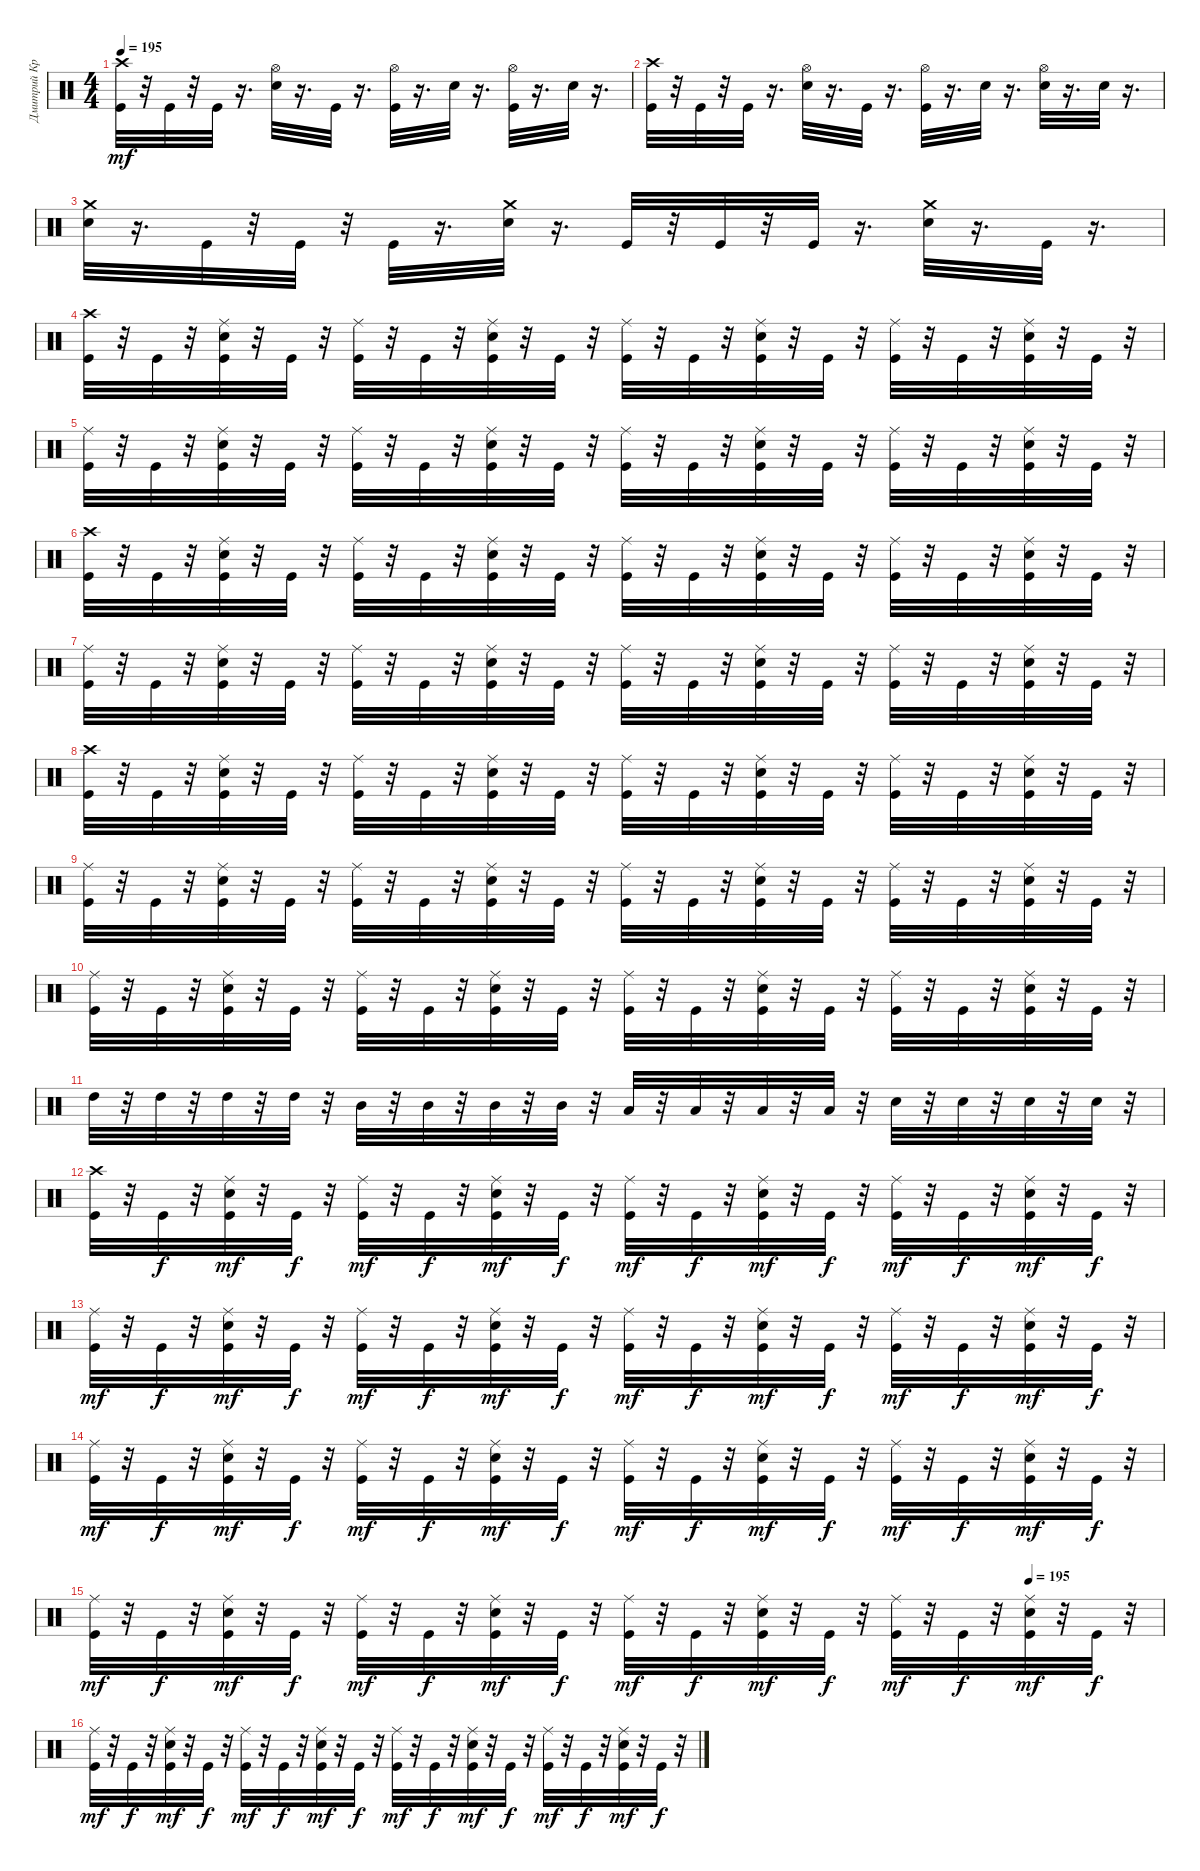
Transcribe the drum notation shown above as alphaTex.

\track ("Дмитрий Кривенков" "Дмитрий Кр") {instrument percussion}
\staff {score}
\articulation defaults
\ts (4 4)
\tempo 195
\clef neutral
\ks c
("Crash high (hit)" "Kick (hit)").32{dy mf} r.32 "Kick (hit)".32 r.32 "Kick (hit)".32 r.16{d} ("Electric Snare (hit)" "Hi-Hat (open)").32 r.16{d} "Kick (hit)".32 r.16{d} ("Kick (hit)" "Hi-Hat (open)").32 r.16{d} "Electric Snare (hit)".32 r.16{d} ("Kick (hit)" "Hi-Hat (open)").32 r.16{d} "Electric Snare (hit)".32 r.16{d} |
("Crash high (hit)" "Kick (hit)").32 r.32 "Kick (hit)".32 r.32 "Kick (hit)".32 r.16{d} ("Electric Snare (hit)" "Hi-Hat (open)").32 r.16{d} "Kick (hit)".32 r.16{d} ("Kick (hit)" "Hi-Hat (open)").32 r.16{d} "Electric Snare (hit)".32 r.16{d} ("Electric Snare (hit)" "Hi-Hat (open)").32 r.16{d} "Electric Snare (hit)".32 r.16{d} |
("Crash medium (hit)" "Electric Snare (hit)").32 r.16{d} "Kick (hit)".32 r.32 "Kick (hit)".32 r.32 "Kick (hit)".32 r.16{d} ("Crash medium (hit)" "Electric Snare (hit)").32 r.16{d} "Kick (hit)".32 r.32 "Kick (hit)".32 r.32 "Kick (hit)".32 r.16{d} ("Crash medium (hit)" "Electric Snare (hit)").32 r.16{d} "Kick (hit)".32 r.16{d} |
("Crash high (hit)" "Kick (hit)").32 r.32 "Kick (hit)".32 r.32 ("Electric Snare (hit)" "Kick (hit)" "Ride (middle)").32 r.32 "Kick (hit)".32 r.32 ("Ride (middle)" "Kick (hit)").32 r.32 "Kick (hit)".32 r.32 ("Ride (middle)" "Electric Snare (hit)" "Kick (hit)").32 r.32 "Kick (hit)".32 r.32 ("Ride (middle)" "Kick (hit)").32 r.32 "Kick (hit)".32 r.32 ("Ride (middle)" "Kick (hit)" "Electric Snare (hit)").32 r.32 "Kick (hit)".32 r.32 ("Ride (middle)" "Kick (hit)").32 r.32 "Kick (hit)".32 r.32 ("Ride (middle)" "Electric Snare (hit)" "Kick (hit)").32 r.32 "Kick (hit)".32 r.32 |
("Ride (middle)" "Kick (hit)").32 r.32 "Kick (hit)".32 r.32 ("Electric Snare (hit)" "Kick (hit)" "Ride (middle)").32 r.32 "Kick (hit)".32 r.32 ("Ride (middle)" "Kick (hit)").32 r.32 "Kick (hit)".32 r.32 ("Ride (middle)" "Electric Snare (hit)" "Kick (hit)").32 r.32 "Kick (hit)".32 r.32 ("Ride (middle)" "Kick (hit)").32 r.32 "Kick (hit)".32 r.32 ("Ride (middle)" "Kick (hit)" "Electric Snare (hit)").32 r.32 "Kick (hit)".32 r.32 ("Ride (middle)" "Kick (hit)").32 r.32 "Kick (hit)".32 r.32 ("Ride (middle)" "Electric Snare (hit)" "Kick (hit)").32 r.32 "Kick (hit)".32 r.32 |
("Crash high (hit)" "Kick (hit)").32 r.32 "Kick (hit)".32 r.32 ("Electric Snare (hit)" "Kick (hit)" "Ride (middle)").32 r.32 "Kick (hit)".32 r.32 ("Ride (middle)" "Kick (hit)").32 r.32 "Kick (hit)".32 r.32 ("Ride (middle)" "Electric Snare (hit)" "Kick (hit)").32 r.32 "Kick (hit)".32 r.32 ("Ride (middle)" "Kick (hit)").32 r.32 "Kick (hit)".32 r.32 ("Ride (middle)" "Kick (hit)" "Electric Snare (hit)").32 r.32 "Kick (hit)".32 r.32 ("Ride (middle)" "Kick (hit)").32 r.32 "Kick (hit)".32 r.32 ("Ride (middle)" "Electric Snare (hit)" "Kick (hit)").32 r.32 "Kick (hit)".32 r.32 |
("Ride (middle)" "Kick (hit)").32 r.32 "Kick (hit)".32 r.32 ("Electric Snare (hit)" "Kick (hit)" "Ride (middle)").32 r.32 "Kick (hit)".32 r.32 ("Ride (middle)" "Kick (hit)").32 r.32 "Kick (hit)".32 r.32 ("Ride (middle)" "Electric Snare (hit)" "Kick (hit)").32 r.32 "Kick (hit)".32 r.32 ("Ride (middle)" "Kick (hit)").32 r.32 "Kick (hit)".32 r.32 ("Ride (middle)" "Kick (hit)" "Electric Snare (hit)").32 r.32 "Kick (hit)".32 r.32 ("Ride (middle)" "Kick (hit)").32 r.32 "Kick (hit)".32 r.32 ("Ride (middle)" "Electric Snare (hit)" "Kick (hit)").32 r.32 "Kick (hit)".32 r.32 |
("Crash high (hit)" "Kick (hit)").32 r.32 "Kick (hit)".32 r.32 ("Electric Snare (hit)" "Kick (hit)" "Ride (middle)").32 r.32 "Kick (hit)".32 r.32 ("Ride (middle)" "Kick (hit)").32 r.32 "Kick (hit)".32 r.32 ("Ride (middle)" "Electric Snare (hit)" "Kick (hit)").32 r.32 "Kick (hit)".32 r.32 ("Ride (middle)" "Kick (hit)").32 r.32 "Kick (hit)".32 r.32 ("Ride (middle)" "Kick (hit)" "Electric Snare (hit)").32 r.32 "Kick (hit)".32 r.32 ("Ride (middle)" "Kick (hit)").32 r.32 "Kick (hit)".32 r.32 ("Ride (middle)" "Electric Snare (hit)" "Kick (hit)").32 r.32 "Kick (hit)".32 r.32 |
("Ride (middle)" "Kick (hit)").32 r.32 "Kick (hit)".32 r.32 ("Electric Snare (hit)" "Kick (hit)" "Ride (middle)").32 r.32 "Kick (hit)".32 r.32 ("Ride (middle)" "Kick (hit)").32 r.32 "Kick (hit)".32 r.32 ("Ride (middle)" "Electric Snare (hit)" "Kick (hit)").32 r.32 "Kick (hit)".32 r.32 ("Ride (middle)" "Kick (hit)").32 r.32 "Kick (hit)".32 r.32 ("Ride (middle)" "Kick (hit)" "Electric Snare (hit)").32 r.32 "Kick (hit)".32 r.32 ("Ride (middle)" "Kick (hit)").32 r.32 "Kick (hit)".32 r.32 ("Ride (middle)" "Electric Snare (hit)" "Kick (hit)").32 r.32 "Kick (hit)".32 r.32 |
("Ride (middle)" "Kick (hit)").32 r.32 "Kick (hit)".32 r.32 ("Electric Snare (hit)" "Kick (hit)" "Ride (middle)").32 r.32 "Kick (hit)".32 r.32 ("Ride (middle)" "Kick (hit)").32 r.32 "Kick (hit)".32 r.32 ("Ride (middle)" "Electric Snare (hit)" "Kick (hit)").32 r.32 "Kick (hit)".32 r.32 ("Ride (middle)" "Kick (hit)").32 r.32 "Kick (hit)".32 r.32 ("Ride (middle)" "Kick (hit)" "Electric Snare (hit)").32 r.32 "Kick (hit)".32 r.32 ("Ride (middle)" "Kick (hit)").32 r.32 "Kick (hit)".32 r.32 ("Ride (middle)" "Electric Snare (hit)" "Kick (hit)").32 r.32 "Kick (hit)".32 r.32 |
"High Tom (hit)".32 r.32 "High Tom (hit)".32 r.32 "High Tom (hit)".32 r.32 "High Tom (hit)".32 r.32 "Mid Tom (hit)".32 r.32 "Mid Tom (hit)".32 r.32 "Mid Tom (hit)".32 r.32 "Mid Tom (hit)".32 r.32 "Low Tom (hit)".32 r.32 "Low Tom (hit)".32 r.32 "Low Tom (hit)".32 r.32 "Low Tom (hit)".32 r.32 "Electric Snare (hit)".32 r.32 "Electric Snare (hit)".32 r.32 "Electric Snare (hit)".32 r.32 "Electric Snare (hit)".32 r.32 |
("Crash high (hit)" "Kick (hit)").32 r.32 "Kick (hit)".32{dy f} r.32 ("Electric Snare (hit)" "Ride (middle)" "Kick (hit)").32{dy mf} r.32 "Kick (hit)".32{dy f} r.32 ("Ride (middle)" "Kick (hit)").32{dy mf} r.32 "Kick (hit)".32{dy f} r.32 ("Ride (middle)" "Kick (hit)" "Electric Snare (hit)").32{dy mf} r.32 "Kick (hit)".32{dy f} r.32 ("Ride (middle)" "Kick (hit)").32{dy mf} r.32 "Kick (hit)".32{dy f} r.32 ("Ride (middle)" "Kick (hit)" "Electric Snare (hit)").32{dy mf} r.32 "Kick (hit)".32{dy f} r.32 ("Ride (middle)" "Kick (hit)").32{dy mf} r.32 "Kick (hit)".32{dy f} r.32 ("Electric Snare (hit)" "Ride (middle)" "Kick (hit)").32{dy mf} r.32 "Kick (hit)".32{dy f} r.32 |
("Ride (middle)" "Kick (hit)").32{dy mf} r.32 "Kick (hit)".32{dy f} r.32 ("Electric Snare (hit)" "Ride (middle)" "Kick (hit)").32{dy mf} r.32 "Kick (hit)".32{dy f} r.32 ("Ride (middle)" "Kick (hit)").32{dy mf} r.32 "Kick (hit)".32{dy f} r.32 ("Ride (middle)" "Kick (hit)" "Electric Snare (hit)").32{dy mf} r.32 "Kick (hit)".32{dy f} r.32 ("Ride (middle)" "Kick (hit)").32{dy mf} r.32 "Kick (hit)".32{dy f} r.32 ("Ride (middle)" "Kick (hit)" "Electric Snare (hit)").32{dy mf} r.32 "Kick (hit)".32{dy f} r.32 ("Ride (middle)" "Kick (hit)").32{dy mf} r.32 "Kick (hit)".32{dy f} r.32 ("Electric Snare (hit)" "Ride (middle)" "Kick (hit)").32{dy mf} r.32 "Kick (hit)".32{dy f} r.32 |
("Ride (middle)" "Kick (hit)").32{dy mf} r.32 "Kick (hit)".32{dy f} r.32 ("Electric Snare (hit)" "Ride (middle)" "Kick (hit)").32{dy mf} r.32 "Kick (hit)".32{dy f} r.32 ("Ride (middle)" "Kick (hit)").32{dy mf} r.32 "Kick (hit)".32{dy f} r.32 ("Ride (middle)" "Kick (hit)" "Electric Snare (hit)").32{dy mf} r.32 "Kick (hit)".32{dy f} r.32 ("Ride (middle)" "Kick (hit)").32{dy mf} r.32 "Kick (hit)".32{dy f} r.32 ("Ride (middle)" "Kick (hit)" "Electric Snare (hit)").32{dy mf} r.32 "Kick (hit)".32{dy f} r.32 ("Ride (middle)" "Kick (hit)").32{dy mf} r.32 "Kick (hit)".32{dy f} r.32 ("Electric Snare (hit)" "Ride (middle)" "Kick (hit)").32{dy mf} r.32 "Kick (hit)".32{dy f} r.32 |
\tempo (195 0.875)
("Ride (middle)" "Kick (hit)").32{dy mf} r.32 "Kick (hit)".32{dy f} r.32 ("Electric Snare (hit)" "Ride (middle)" "Kick (hit)").32{dy mf} r.32 "Kick (hit)".32{dy f} r.32 ("Ride (middle)" "Kick (hit)").32{dy mf} r.32 "Kick (hit)".32{dy f} r.32 ("Ride (middle)" "Kick (hit)" "Electric Snare (hit)").32{dy mf} r.32 "Kick (hit)".32{dy f} r.32 ("Ride (middle)" "Kick (hit)").32{dy mf} r.32 "Kick (hit)".32{dy f} r.32 ("Ride (middle)" "Kick (hit)" "Electric Snare (hit)").32{dy mf} r.32 "Kick (hit)".32{dy f} r.32 ("Ride (middle)" "Kick (hit)").32{dy mf} r.32 "Kick (hit)".32{dy f} r.32 ("Electric Snare (hit)" "Ride (middle)" "Kick (hit)").32{dy mf} r.32 "Kick (hit)".32{dy f} r.32 |
("Ride (middle)" "Kick (hit)").32{dy mf} r.32 "Kick (hit)".32{dy f} r.32 ("Electric Snare (hit)" "Ride (middle)" "Kick (hit)").32{dy mf} r.32 "Kick (hit)".32{dy f} r.32 ("Ride (middle)" "Kick (hit)").32{dy mf} r.32 "Kick (hit)".32{dy f} r.32 ("Ride (middle)" "Kick (hit)" "Electric Snare (hit)").32{dy mf} r.32 "Kick (hit)".32{dy f} r.32 ("Ride (middle)" "Kick (hit)").32{dy mf} r.32 "Kick (hit)".32{dy f} r.32 ("Ride (middle)" "Kick (hit)" "Electric Snare (hit)").32{dy mf} r.32 "Kick (hit)".32{dy f} r.32 ("Ride (middle)" "Kick (hit)").32{dy mf} r.32 "Kick (hit)".32{dy f} r.32 ("Electric Snare (hit)" "Ride (middle)" "Kick (hit)").32{dy mf} r.32 "Kick (hit)".32{dy f} r.32
